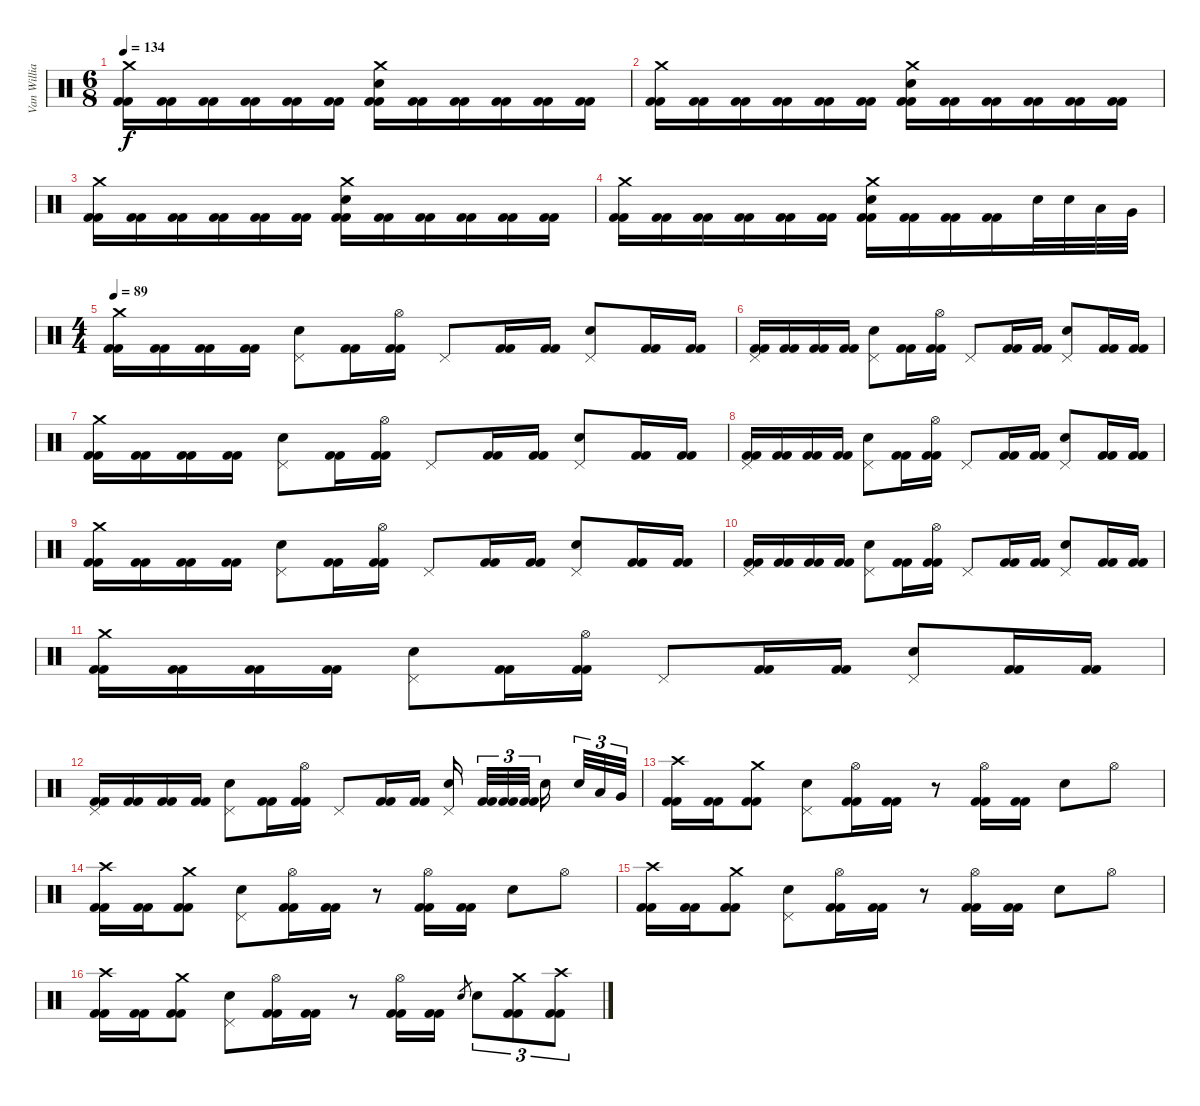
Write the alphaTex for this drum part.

\track ("Van Williams" "Van Willia") {instrument percussion}
\staff {score}
\articulation defaults
\ts (6 8)
\tempo 134
\clef neutral
\ks c
("Crash medium (hit)" "Kick (hit) 2" "Kick (hit) 2").16{dy f} ("Kick (hit) 2" "Kick (hit) 2").16 ("Kick (hit) 2" "Kick (hit) 2").16 ("Kick (hit) 2" "Kick (hit) 2").16 ("Kick (hit) 2" "Kick (hit) 2").16 ("Kick (hit) 2" "Kick (hit) 2").16 ("Crash medium (hit)" "Electric Snare (hit)" "Kick (hit) 2" "Kick (hit) 2").16 ("Kick (hit) 2" "Kick (hit) 2").16 ("Kick (hit) 2" "Kick (hit) 2").16 ("Kick (hit) 2" "Kick (hit) 2").16 ("Kick (hit) 2" "Kick (hit) 2").16 ("Kick (hit) 2" "Kick (hit) 2").16 |
("Crash medium (hit)" "Kick (hit) 2" "Kick (hit) 2").16 ("Kick (hit) 2" "Kick (hit) 2").16 ("Kick (hit) 2" "Kick (hit) 2").16 ("Kick (hit) 2" "Kick (hit) 2").16 ("Kick (hit) 2" "Kick (hit) 2").16 ("Kick (hit) 2" "Kick (hit) 2").16 ("Crash medium (hit)" "Electric Snare (hit)" "Kick (hit) 2" "Kick (hit) 2").16 ("Kick (hit) 2" "Kick (hit) 2").16 ("Kick (hit) 2" "Kick (hit) 2").16 ("Kick (hit) 2" "Kick (hit) 2").16 ("Kick (hit) 2" "Kick (hit) 2").16 ("Kick (hit) 2" "Kick (hit) 2").16 |
("Crash medium (hit)" "Kick (hit) 2" "Kick (hit) 2").16 ("Kick (hit) 2" "Kick (hit) 2").16 ("Kick (hit) 2" "Kick (hit) 2").16 ("Kick (hit) 2" "Kick (hit) 2").16 ("Kick (hit) 2" "Kick (hit) 2").16 ("Kick (hit) 2" "Kick (hit) 2").16 ("Crash medium (hit)" "Electric Snare (hit)" "Kick (hit) 2" "Kick (hit) 2").16 ("Kick (hit) 2" "Kick (hit) 2").16 ("Kick (hit) 2" "Kick (hit) 2").16 ("Kick (hit) 2" "Kick (hit) 2").16 ("Kick (hit) 2" "Kick (hit) 2").16 ("Kick (hit) 2" "Kick (hit) 2").16 |
("Crash medium (hit)" "Kick (hit) 2" "Kick (hit) 2").16 ("Kick (hit) 2" "Kick (hit) 2").16 ("Kick (hit) 2" "Kick (hit) 2").16 ("Kick (hit) 2" "Kick (hit) 2").16 ("Kick (hit) 2" "Kick (hit) 2").16 ("Kick (hit) 2" "Kick (hit) 2").16 ("Crash medium (hit)" "Electric Snare (hit)" "Kick (hit) 2" "Kick (hit) 2").16 ("Kick (hit) 2" "Kick (hit) 2").16 ("Kick (hit) 2" "Kick (hit) 2").16 ("Kick (hit) 2" "Kick (hit) 2").16 "Electric Snare (hit)".32 "Electric Snare (hit)".32 "Low Tom (hit)".32 "Very Low Tom (hit)".32 |
\ts (4 4)
\tempo 89
("Crash medium (hit)" "Kick (hit) 2" "Kick (hit) 2").16 ("Kick (hit) 2" "Kick (hit) 2").16 ("Kick (hit) 2" "Kick (hit) 2").16 ("Kick (hit) 2" "Kick (hit) 2").16 ("Pedal Hi-Hat (hit)" "Electric Snare (hit)").8 ("Kick (hit) 2" "Kick (hit) 2").16 ("Hi-Hat (open)" "Kick (hit) 2" "Kick (hit) 2").16 "Pedal Hi-Hat (hit)".8 ("Kick (hit) 2" "Kick (hit) 2").16 ("Kick (hit) 2" "Kick (hit) 2").16 ("Pedal Hi-Hat (hit)" "Electric Snare (hit)").8 ("Kick (hit) 2" "Kick (hit) 2").16 ("Kick (hit) 2" "Kick (hit) 2").16 |
("Pedal Hi-Hat (hit)" "Kick (hit) 2" "Kick (hit) 2").16 ("Kick (hit) 2" "Kick (hit) 2").16 ("Kick (hit) 2" "Kick (hit) 2").16 ("Kick (hit) 2" "Kick (hit) 2").16 ("Pedal Hi-Hat (hit)" "Electric Snare (hit)").8 ("Kick (hit) 2" "Kick (hit) 2").16 ("Hi-Hat (open)" "Kick (hit) 2" "Kick (hit) 2").16 "Pedal Hi-Hat (hit)".8 ("Kick (hit) 2" "Kick (hit) 2").16 ("Kick (hit) 2" "Kick (hit) 2").16 ("Pedal Hi-Hat (hit)" "Electric Snare (hit)").8 ("Kick (hit) 2" "Kick (hit) 2").16 ("Kick (hit) 2" "Kick (hit) 2").16 |
("Crash medium (hit)" "Kick (hit) 2" "Kick (hit) 2").16 ("Kick (hit) 2" "Kick (hit) 2").16 ("Kick (hit) 2" "Kick (hit) 2").16 ("Kick (hit) 2" "Kick (hit) 2").16 ("Pedal Hi-Hat (hit)" "Electric Snare (hit)").8 ("Kick (hit) 2" "Kick (hit) 2").16 ("Hi-Hat (open)" "Kick (hit) 2" "Kick (hit) 2").16 "Pedal Hi-Hat (hit)".8 ("Kick (hit) 2" "Kick (hit) 2").16 ("Kick (hit) 2" "Kick (hit) 2").16 ("Pedal Hi-Hat (hit)" "Electric Snare (hit)").8 ("Kick (hit) 2" "Kick (hit) 2").16 ("Kick (hit) 2" "Kick (hit) 2").16 |
("Pedal Hi-Hat (hit)" "Kick (hit) 2" "Kick (hit) 2").16 ("Kick (hit) 2" "Kick (hit) 2").16 ("Kick (hit) 2" "Kick (hit) 2").16 ("Kick (hit) 2" "Kick (hit) 2").16 ("Pedal Hi-Hat (hit)" "Electric Snare (hit)").8 ("Kick (hit) 2" "Kick (hit) 2").16 ("Hi-Hat (open)" "Kick (hit) 2" "Kick (hit) 2").16 "Pedal Hi-Hat (hit)".8 ("Kick (hit) 2" "Kick (hit) 2").16 ("Kick (hit) 2" "Kick (hit) 2").16 ("Pedal Hi-Hat (hit)" "Electric Snare (hit)").8 ("Kick (hit) 2" "Kick (hit) 2").16 ("Kick (hit) 2" "Kick (hit) 2").16 |
("Crash medium (hit)" "Kick (hit) 2" "Kick (hit) 2").16 ("Kick (hit) 2" "Kick (hit) 2").16 ("Kick (hit) 2" "Kick (hit) 2").16 ("Kick (hit) 2" "Kick (hit) 2").16 ("Pedal Hi-Hat (hit)" "Electric Snare (hit)").8 ("Kick (hit) 2" "Kick (hit) 2").16 ("Hi-Hat (open)" "Kick (hit) 2" "Kick (hit) 2").16 "Pedal Hi-Hat (hit)".8 ("Kick (hit) 2" "Kick (hit) 2").16 ("Kick (hit) 2" "Kick (hit) 2").16 ("Pedal Hi-Hat (hit)" "Electric Snare (hit)").8 ("Kick (hit) 2" "Kick (hit) 2").16 ("Kick (hit) 2" "Kick (hit) 2").16 |
("Pedal Hi-Hat (hit)" "Kick (hit) 2" "Kick (hit) 2").16 ("Kick (hit) 2" "Kick (hit) 2").16 ("Kick (hit) 2" "Kick (hit) 2").16 ("Kick (hit) 2" "Kick (hit) 2").16 ("Pedal Hi-Hat (hit)" "Electric Snare (hit)").8 ("Kick (hit) 2" "Kick (hit) 2").16 ("Hi-Hat (open)" "Kick (hit) 2" "Kick (hit) 2").16 "Pedal Hi-Hat (hit)".8 ("Kick (hit) 2" "Kick (hit) 2").16 ("Kick (hit) 2" "Kick (hit) 2").16 ("Pedal Hi-Hat (hit)" "Electric Snare (hit)").8 ("Kick (hit) 2" "Kick (hit) 2").16 ("Kick (hit) 2" "Kick (hit) 2").16 |
("Crash medium (hit)" "Kick (hit) 2" "Kick (hit) 2").16 ("Kick (hit) 2" "Kick (hit) 2").16 ("Kick (hit) 2" "Kick (hit) 2").16 ("Kick (hit) 2" "Kick (hit) 2").16 ("Pedal Hi-Hat (hit)" "Electric Snare (hit)").8 ("Kick (hit) 2" "Kick (hit) 2").16 ("Hi-Hat (open)" "Kick (hit) 2" "Kick (hit) 2").16 "Pedal Hi-Hat (hit)".8 ("Kick (hit) 2" "Kick (hit) 2").16 ("Kick (hit) 2" "Kick (hit) 2").16 ("Pedal Hi-Hat (hit)" "Electric Snare (hit)").8 ("Kick (hit) 2" "Kick (hit) 2").16 ("Kick (hit) 2" "Kick (hit) 2").16 |
("Pedal Hi-Hat (hit)" "Kick (hit) 2" "Kick (hit) 2").16 ("Kick (hit) 2" "Kick (hit) 2").16 ("Kick (hit) 2" "Kick (hit) 2").16 ("Kick (hit) 2" "Kick (hit) 2").16 ("Pedal Hi-Hat (hit)" "Electric Snare (hit)").8 ("Kick (hit) 2" "Kick (hit) 2").16 ("Hi-Hat (open)" "Kick (hit) 2" "Kick (hit) 2").16 "Pedal Hi-Hat (hit)".8 ("Kick (hit) 2" "Kick (hit) 2").16 ("Kick (hit) 2" "Kick (hit) 2").16 ("Pedal Hi-Hat (hit)" "Electric Snare (hit)").16{beam splitsecondary} ("Kick (hit) 2" "Kick (hit) 2").32{tu (3 2)} ("Kick (hit) 2" "Kick (hit) 2").32{tu (3 2)} ("Kick (hit) 2" "Kick (hit) 2").32{tu (3 2) beam splitsecondary} "Electric Snare (hit)".16{beam splitsecondary} "Electric Snare (hit)".32{tu (3 2)} "Low Tom (hit)".32{tu (3 2)} "Very Low Tom (hit)".32{tu (3 2)} |
("Crash high (hit)" "Kick (hit) 2" "Kick (hit) 2").16 ("Kick (hit) 2" "Kick (hit) 2").16 ("Crash medium (hit)" "Kick (hit) 2" "Kick (hit) 2").8 ("Pedal Hi-Hat (hit)" "Electric Snare (hit)").8 ("Hi-Hat (open)" "Kick (hit) 2" "Kick (hit) 2").16 ("Kick (hit) 2" "Kick (hit) 2").16 r.8 ("Hi-Hat (open)" "Kick (hit) 2" "Kick (hit) 2").16 ("Kick (hit) 2" "Kick (hit) 2").16 "Electric Snare (hit)".8 "Hi-Hat (open)".8 |
("Crash high (hit)" "Kick (hit) 2" "Kick (hit) 2").16 ("Kick (hit) 2" "Kick (hit) 2").16 ("Crash medium (hit)" "Kick (hit) 2" "Kick (hit) 2").8 ("Pedal Hi-Hat (hit)" "Electric Snare (hit)").8 ("Hi-Hat (open)" "Kick (hit) 2" "Kick (hit) 2").16 ("Kick (hit) 2" "Kick (hit) 2").16 r.8 ("Hi-Hat (open)" "Kick (hit) 2" "Kick (hit) 2").16 ("Kick (hit) 2" "Kick (hit) 2").16 "Electric Snare (hit)".8 "Hi-Hat (open)".8 |
("Crash high (hit)" "Kick (hit) 2" "Kick (hit) 2").16 ("Kick (hit) 2" "Kick (hit) 2").16 ("Crash medium (hit)" "Kick (hit) 2" "Kick (hit) 2").8 ("Pedal Hi-Hat (hit)" "Electric Snare (hit)").8 ("Hi-Hat (open)" "Kick (hit) 2" "Kick (hit) 2").16 ("Kick (hit) 2" "Kick (hit) 2").16 r.8 ("Hi-Hat (open)" "Kick (hit) 2" "Kick (hit) 2").16 ("Kick (hit) 2" "Kick (hit) 2").16 "Electric Snare (hit)".8 "Hi-Hat (open)".8 |
("Crash high (hit)" "Kick (hit) 2" "Kick (hit) 2").16 ("Kick (hit) 2" "Kick (hit) 2").16 ("Crash medium (hit)" "Kick (hit) 2" "Kick (hit) 2").8 ("Pedal Hi-Hat (hit)" "Electric Snare (hit)").8 ("Hi-Hat (open)" "Kick (hit) 2" "Kick (hit) 2").16 ("Kick (hit) 2" "Kick (hit) 2").16 r.8 ("Hi-Hat (open)" "Kick (hit) 2" "Kick (hit) 2").16 ("Kick (hit) 2" "Kick (hit) 2").16 "Electric Snare (hit)".8{gr} "Electric Snare (hit)".8{tu (3 2)} ("Crash medium (hit)" "Kick (hit) 2" "Kick (hit) 2").8{tu (3 2)} ("Crash high (hit)" "Kick (hit) 2" "Kick (hit) 2").8{tu (3 2)}
